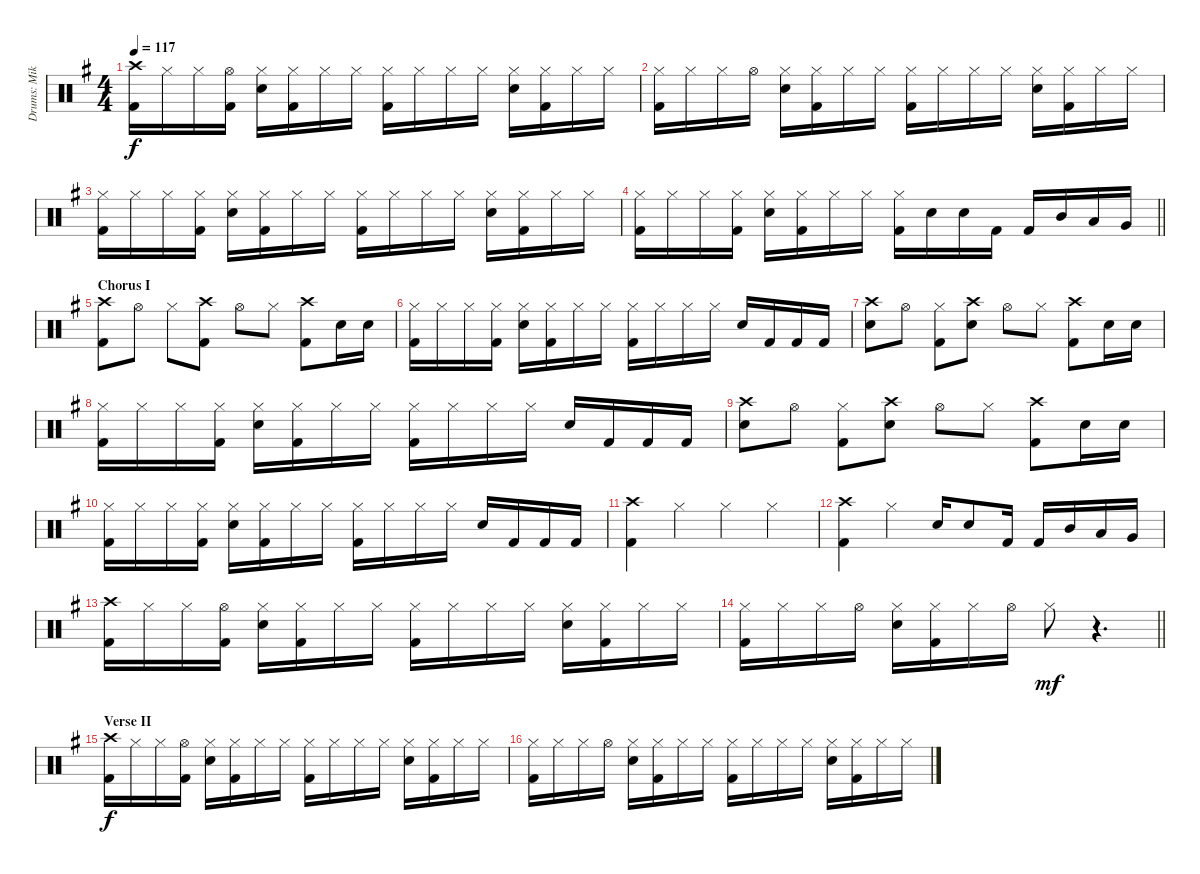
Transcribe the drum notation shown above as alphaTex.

\track ("Drums: Mike" "Drums: Mik") {instrument percussion}
\staff {score}
\articulation defaults
\ts (4 4)
\tempo 117
\clef neutral
\ks g
("Crash high (hit)" "Kick (hit) 2").16{dy f} "Hi-Hat (closed)".16 "Hi-Hat (closed)".16 ("Hi-Hat (open)" "Kick (hit) 2").16 ("Hi-Hat (closed)" "Electric Snare (hit)").16 ("Hi-Hat (closed)" "Kick (hit) 2").16 "Hi-Hat (closed)".16 "Hi-Hat (closed)".16 ("Hi-Hat (closed)" "Kick (hit) 2").16 "Hi-Hat (closed)".16 "Hi-Hat (closed)".16 "Hi-Hat (closed)".16 ("Hi-Hat (closed)" "Electric Snare (hit)").16 ("Hi-Hat (closed)" "Kick (hit) 2").16 "Hi-Hat (closed)".16 "Hi-Hat (closed)".16 |
("Hi-Hat (closed)" "Kick (hit) 2").16 "Hi-Hat (closed)".16 "Hi-Hat (closed)".16 "Hi-Hat (open)".16 ("Hi-Hat (closed)" "Electric Snare (hit)").16 ("Hi-Hat (closed)" "Kick (hit) 2").16 "Hi-Hat (closed)".16 "Hi-Hat (closed)".16 ("Hi-Hat (closed)" "Kick (hit) 2").16 "Hi-Hat (closed)".16 "Hi-Hat (closed)".16 "Hi-Hat (closed)".16 ("Hi-Hat (closed)" "Electric Snare (hit)").16 ("Hi-Hat (closed)" "Kick (hit) 2").16 "Hi-Hat (closed)".16 "Hi-Hat (closed)".16 |
("Hi-Hat (closed)" "Kick (hit) 2").16 "Hi-Hat (closed)".16 "Hi-Hat (closed)".16 ("Hi-Hat (closed)" "Kick (hit) 2").16 ("Hi-Hat (closed)" "Electric Snare (hit)").16 ("Hi-Hat (closed)" "Kick (hit) 2").16 "Hi-Hat (closed)".16 "Hi-Hat (closed)".16 ("Hi-Hat (closed)" "Kick (hit) 2").16 "Hi-Hat (closed)".16 "Hi-Hat (closed)".16 "Hi-Hat (closed)".16 ("Hi-Hat (closed)" "Electric Snare (hit)").16 ("Hi-Hat (closed)" "Kick (hit) 2").16 "Hi-Hat (closed)".16 "Hi-Hat (closed)".16 |
\barLineRight lightlight
("Hi-Hat (closed)" "Kick (hit) 2").16 "Hi-Hat (closed)".16 "Hi-Hat (closed)".16 ("Hi-Hat (closed)" "Kick (hit) 2").16 ("Hi-Hat (closed)" "Electric Snare (hit)").16 ("Hi-Hat (closed)" "Kick (hit) 2").16 "Hi-Hat (closed)".16 "Hi-Hat (closed)".16 ("Hi-Hat (closed)" "Kick (hit) 2").16 "Electric Snare (hit)".16 "Electric Snare (hit)".16 "Kick (hit) 2".16 "Kick (hit) 2".16 "Mid Tom (hit)".16 "Low Tom (hit)".16 "Very Low Tom (hit)".16 |
\section ("" "Chorus I")
("Crash high (hit)" "Kick (hit) 2").8 "Hi-Hat (open)".8 "Hi-Hat (closed)".8 ("Crash high (hit)" "Kick (hit) 2").8 "Hi-Hat (open)".8 "Hi-Hat (closed)".8 ("Crash high (hit)" "Kick (hit) 2").8 "Electric Snare (hit)".16 "Electric Snare (hit)".16 |
("Hi-Hat (closed)" "Kick (hit) 2").16 "Hi-Hat (closed)".16 "Hi-Hat (closed)".16 ("Hi-Hat (closed)" "Kick (hit) 2").16 ("Hi-Hat (closed)" "Electric Snare (hit)").16 ("Hi-Hat (closed)" "Kick (hit) 2").16 "Hi-Hat (closed)".16 "Hi-Hat (closed)".16 ("Hi-Hat (closed)" "Kick (hit) 2").16 "Hi-Hat (closed)".16 "Hi-Hat (closed)".16 "Hi-Hat (closed)".16 "Electric Snare (hit)".16 "Kick (hit) 2".16 "Kick (hit) 2".16 "Kick (hit) 2".16 |
("Crash high (hit)" "Electric Snare (hit)").8 "Hi-Hat (open)".8 ("Hi-Hat (closed)" "Kick (hit) 2").8 ("Crash high (hit)" "Electric Snare (hit)").8 "Hi-Hat (open)".8 "Hi-Hat (closed)".8 ("Crash high (hit)" "Kick (hit) 2").8 "Electric Snare (hit)".16 "Electric Snare (hit)".16 |
("Hi-Hat (closed)" "Kick (hit) 2").16 "Hi-Hat (closed)".16 "Hi-Hat (closed)".16 ("Hi-Hat (closed)" "Kick (hit) 2").16 ("Hi-Hat (closed)" "Electric Snare (hit)").16 ("Hi-Hat (closed)" "Kick (hit) 2").16 "Hi-Hat (closed)".16 "Hi-Hat (closed)".16 ("Hi-Hat (closed)" "Kick (hit) 2").16 "Hi-Hat (closed)".16 "Hi-Hat (closed)".16 "Hi-Hat (closed)".16 "Electric Snare (hit)".16 "Kick (hit) 2".16 "Kick (hit) 2".16 "Kick (hit) 2".16 |
("Crash high (hit)" "Electric Snare (hit)").8 "Hi-Hat (open)".8 ("Hi-Hat (closed)" "Kick (hit) 2").8 ("Crash high (hit)" "Electric Snare (hit)").8 "Hi-Hat (open)".8 "Hi-Hat (closed)".8 ("Crash high (hit)" "Kick (hit) 2").8 "Electric Snare (hit)".16 "Electric Snare (hit)".16 |
("Hi-Hat (closed)" "Kick (hit) 2").16 "Hi-Hat (closed)".16 "Hi-Hat (closed)".16 ("Hi-Hat (closed)" "Kick (hit) 2").16 ("Hi-Hat (closed)" "Electric Snare (hit)").16 ("Hi-Hat (closed)" "Kick (hit) 2").16 "Hi-Hat (closed)".16 "Hi-Hat (closed)".16 ("Hi-Hat (closed)" "Kick (hit) 2").16 "Hi-Hat (closed)".16 "Hi-Hat (closed)".16 "Hi-Hat (closed)".16 "Electric Snare (hit)".16 "Kick (hit) 2".16 "Kick (hit) 2".16 "Kick (hit) 2".16 |
("Crash high (hit)" "Kick (hit) 2").4 "Hi-Hat (closed)".4 "Hi-Hat (closed)".4 "Hi-Hat (closed)".4 |
("Crash high (hit)" "Kick (hit) 2").4 "Hi-Hat (closed)".4 "Electric Snare (hit)".16 "Electric Snare (hit)".8 "Kick (hit) 2".16 "Kick (hit) 2".16 "Mid Tom (hit)".16 "Low Tom (hit)".16 "Very Low Tom (hit)".16 |
("Crash high (hit)" "Kick (hit) 2").16 "Hi-Hat (closed)".16 "Hi-Hat (closed)".16 ("Hi-Hat (open)" "Kick (hit) 2").16 ("Hi-Hat (closed)" "Electric Snare (hit)").16 ("Hi-Hat (closed)" "Kick (hit) 2").16 "Hi-Hat (closed)".16 "Hi-Hat (closed)".16 ("Hi-Hat (closed)" "Kick (hit) 2").16 "Hi-Hat (closed)".16 "Hi-Hat (closed)".16 "Hi-Hat (closed)".16 ("Hi-Hat (closed)" "Electric Snare (hit)").16 ("Hi-Hat (closed)" "Kick (hit) 2").16 "Hi-Hat (closed)".16 "Hi-Hat (closed)".16 |
\barLineRight lightlight
("Hi-Hat (closed)" "Kick (hit) 2").16 "Hi-Hat (closed)".16 "Hi-Hat (closed)".16 "Hi-Hat (open)".16 ("Hi-Hat (closed)" "Electric Snare (hit)").16 ("Hi-Hat (closed)" "Kick (hit) 2").16 "Hi-Hat (closed)".16 "Hi-Hat (open)".16 "Hi-Hat (closed)".8{dy mf} r.4{d} |
\section ("" "Verse II")
("Crash high (hit)" "Kick (hit) 2").16{dy f} "Hi-Hat (closed)".16 "Hi-Hat (closed)".16 ("Hi-Hat (open)" "Kick (hit) 2").16 ("Hi-Hat (closed)" "Electric Snare (hit)").16 ("Hi-Hat (closed)" "Kick (hit) 2").16 "Hi-Hat (closed)".16 "Hi-Hat (closed)".16 ("Hi-Hat (closed)" "Kick (hit) 2").16 "Hi-Hat (closed)".16 "Hi-Hat (closed)".16 "Hi-Hat (closed)".16 ("Hi-Hat (closed)" "Electric Snare (hit)").16 ("Hi-Hat (closed)" "Kick (hit) 2").16 "Hi-Hat (closed)".16 "Hi-Hat (closed)".16 |
("Hi-Hat (closed)" "Kick (hit) 2").16 "Hi-Hat (closed)".16 "Hi-Hat (closed)".16 "Hi-Hat (open)".16 ("Hi-Hat (closed)" "Electric Snare (hit)").16 ("Hi-Hat (closed)" "Kick (hit) 2").16 "Hi-Hat (closed)".16 "Hi-Hat (closed)".16 ("Hi-Hat (closed)" "Kick (hit) 2").16 "Hi-Hat (closed)".16 "Hi-Hat (closed)".16 "Hi-Hat (closed)".16 ("Hi-Hat (closed)" "Electric Snare (hit)").16 ("Hi-Hat (closed)" "Kick (hit) 2").16 "Hi-Hat (closed)".16 "Hi-Hat (closed)".16
